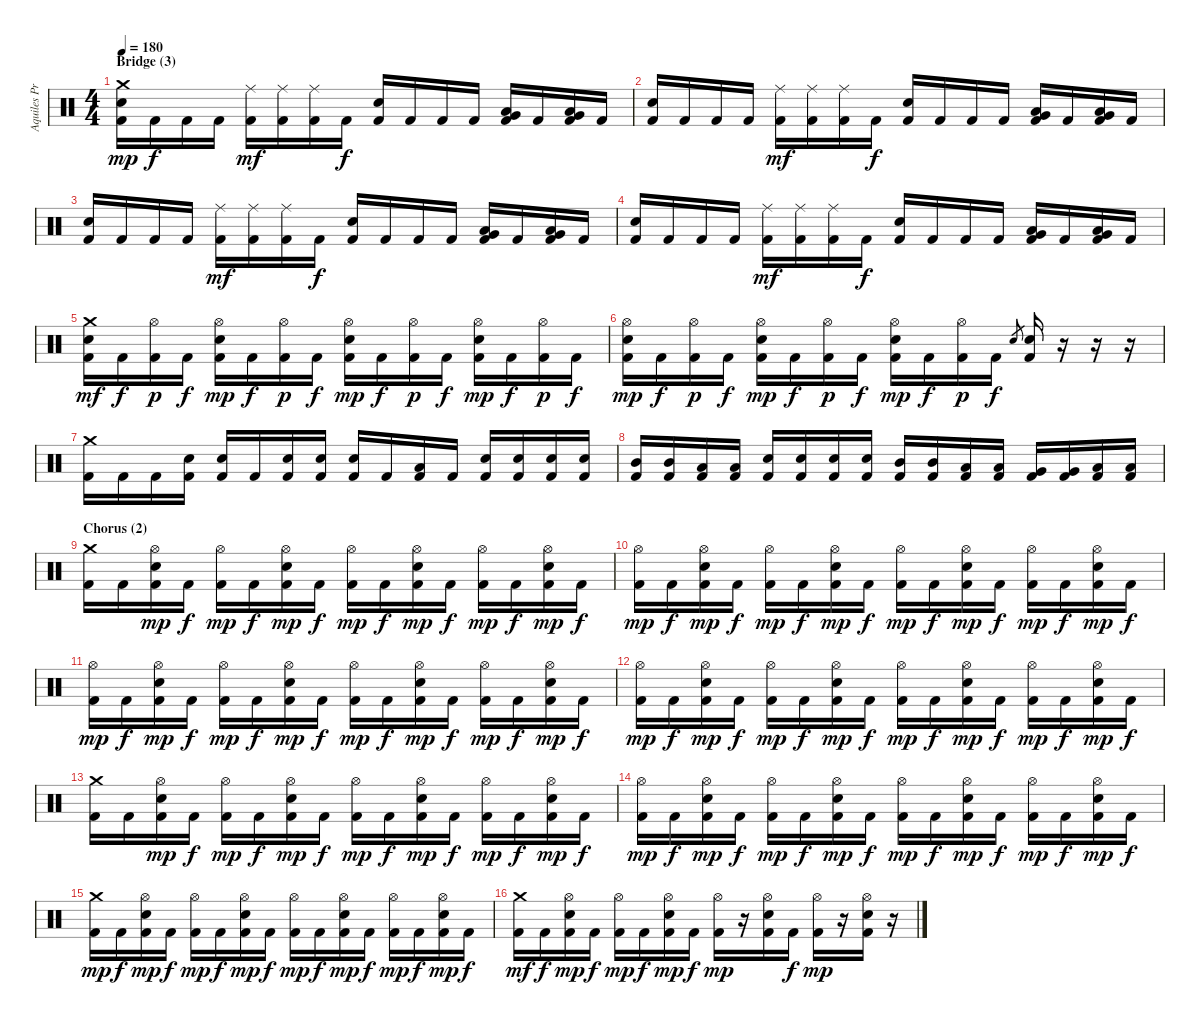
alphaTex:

\track ("Aquiles Priester" "Aquiles Pr") {instrument percussion}
\staff {score}
\articulation defaults
\ts (4 4)
\section ("" "Bridge (3)")
\tempo 180
\clef neutral
\ks c
("Crash medium (hit)" "Snare (hit) 2" "Kick (hit) 2").16{dy mp} "Kick (hit) 2".16{dy f} "Kick (hit) 2".16 "Kick (hit) 2".16 ("Ride (middle)" "Kick (hit) 2").16{dy mf} ("Ride (middle)" "Kick (hit) 2").16 ("Ride (middle)" "Kick (hit) 2").16 "Kick (hit) 2".16{dy f} ("Snare (hit) 2" "Kick (hit) 2").16 "Kick (hit) 2".16 "Kick (hit) 2".16 "Kick (hit) 2".16 ("Low Tom (hit)" "Very Low Tom (hit)" "Kick (hit) 2").16 "Kick (hit) 2".16 ("Low Tom (hit)" "Very Low Tom (hit)" "Kick (hit) 2").16 "Kick (hit) 2".16 |
("Snare (hit) 2" "Kick (hit) 2").16 "Kick (hit) 2".16 "Kick (hit) 2".16 "Kick (hit) 2".16 ("Ride (middle)" "Kick (hit) 2").16{dy mf} ("Ride (middle)" "Kick (hit) 2").16 ("Ride (middle)" "Kick (hit) 2").16 "Kick (hit) 2".16{dy f} ("Snare (hit) 2" "Kick (hit) 2").16 "Kick (hit) 2".16 "Kick (hit) 2".16 "Kick (hit) 2".16 ("Low Tom (hit)" "Very Low Tom (hit)" "Kick (hit) 2").16 "Kick (hit) 2".16 ("Low Tom (hit)" "Very Low Tom (hit)" "Kick (hit) 2").16 "Kick (hit) 2".16 |
("Snare (hit) 2" "Kick (hit) 2").16 "Kick (hit) 2".16 "Kick (hit) 2".16 "Kick (hit) 2".16 ("Ride (middle)" "Kick (hit) 2").16{dy mf} ("Ride (middle)" "Kick (hit) 2").16 ("Ride (middle)" "Kick (hit) 2").16 "Kick (hit) 2".16{dy f} ("Snare (hit) 2" "Kick (hit) 2").16 "Kick (hit) 2".16 "Kick (hit) 2".16 "Kick (hit) 2".16 ("Low Tom (hit)" "Very Low Tom (hit)" "Kick (hit) 2").16 "Kick (hit) 2".16 ("Low Tom (hit)" "Very Low Tom (hit)" "Kick (hit) 2").16 "Kick (hit) 2".16 |
("Snare (hit) 2" "Kick (hit) 2").16 "Kick (hit) 2".16 "Kick (hit) 2".16 "Kick (hit) 2".16 ("Ride (middle)" "Kick (hit) 2").16{dy mf} ("Ride (middle)" "Kick (hit) 2").16 ("Ride (middle)" "Kick (hit) 2").16 "Kick (hit) 2".16{dy f} ("Snare (hit) 2" "Kick (hit) 2").16 "Kick (hit) 2".16 "Kick (hit) 2".16 "Kick (hit) 2".16 ("Low Tom (hit)" "Very Low Tom (hit)" "Kick (hit) 2").16 "Kick (hit) 2".16 ("Low Tom (hit)" "Very Low Tom (hit)" "Kick (hit) 2").16 "Kick (hit) 2".16 |
("Crash medium (hit)" "Snare (hit) 2" "Kick (hit) 2").16{dy mf} "Kick (hit) 2".16{dy f} ("Hi-Hat (open)" "Kick (hit) 2").16{dy p} "Kick (hit) 2".16{dy f} ("Hi-Hat (open)" "Snare (hit) 2" "Kick (hit) 2").16{dy mp} "Kick (hit) 2".16{dy f} ("Hi-Hat (open)" "Kick (hit) 2").16{dy p} "Kick (hit) 2".16{dy f} ("Hi-Hat (open)" "Snare (hit) 2" "Kick (hit) 2").16{dy mp} "Kick (hit) 2".16{dy f} ("Hi-Hat (open)" "Kick (hit) 2").16{dy p} "Kick (hit) 2".16{dy f} ("Hi-Hat (open)" "Snare (hit) 2" "Kick (hit) 2").16{dy mp} "Kick (hit) 2".16{dy f} ("Hi-Hat (open)" "Kick (hit) 2").16{dy p} "Kick (hit) 2".16{dy f} |
("Hi-Hat (open)" "Snare (hit) 2" "Kick (hit) 2").16{dy mp} "Kick (hit) 2".16{dy f} ("Hi-Hat (open)" "Kick (hit) 2").16{dy p} "Kick (hit) 2".16{dy f} ("Hi-Hat (open)" "Snare (hit) 2" "Kick (hit) 2").16{dy mp} "Kick (hit) 2".16{dy f} ("Hi-Hat (open)" "Kick (hit) 2").16{dy p} "Kick (hit) 2".16{dy f} ("Hi-Hat (open)" "Snare (hit) 2" "Kick (hit) 2").16{dy mp} "Kick (hit) 2".16{dy f} ("Hi-Hat (open)" "Kick (hit) 2").16{dy p} "Kick (hit) 2".16{dy f} "Snare (hit) 2".8{gr} ("Snare (hit) 2" "Kick (hit) 2").16 r.16 r.16 r.16 |
("Crash medium (hit)" "Kick (hit) 2").16 "Kick (hit) 2".16 "Kick (hit) 2".16 ("Snare (hit) 2" "Kick (hit) 2").16 ("Snare (hit) 2" "Kick (hit) 2").16 "Kick (hit) 2".16 ("Snare (hit) 2" "Kick (hit) 2").16 ("Snare (hit) 2" "Kick (hit) 2").16 ("Snare (hit) 2" "Kick (hit) 2").16 "Kick (hit) 2".16 ("Low Tom (hit)" "Kick (hit) 2").16 "Kick (hit) 2".16 ("Snare (hit) 2" "Kick (hit) 2").16 ("Snare (hit) 2" "Kick (hit) 2").16 ("Snare (hit) 2" "Kick (hit) 2").16 ("Snare (hit) 2" "Kick (hit) 2").16 |
("Mid Tom (hit)" "Kick (hit) 2").16 ("Mid Tom (hit)" "Kick (hit) 2").16 ("Low Tom (hit)" "Kick (hit) 2").16 ("Low Tom (hit)" "Kick (hit) 2").16 ("Snare (hit) 2" "Kick (hit) 2").16 ("Snare (hit) 2" "Kick (hit) 2").16 ("Snare (hit) 2" "Kick (hit) 2").16 ("Snare (hit) 2" "Kick (hit) 2").16 ("Mid Tom (hit)" "Kick (hit) 2").16 ("Mid Tom (hit)" "Kick (hit) 2").16 ("Low Tom (hit)" "Kick (hit) 2").16 ("Low Tom (hit)" "Kick (hit) 2").16 ("Very Low Tom (hit)" "Kick (hit) 2").16 ("Very Low Tom (hit)" "Kick (hit) 2").16 ("Low Floor Tom (hit)" "Kick (hit) 2").16 ("Low Floor Tom (hit)" "Kick (hit) 2").16 |
\section ("" "Chorus (2)")
("Crash medium (hit)" "Kick (hit) 2").16 "Kick (hit) 2".16 ("Hi-Hat (open)" "Snare (hit) 2" "Kick (hit) 2").16{dy mp} "Kick (hit) 2".16{dy f} ("Hi-Hat (open)" "Kick (hit) 2").16{dy mp} "Kick (hit) 2".16{dy f} ("Hi-Hat (open)" "Snare (hit) 2" "Kick (hit) 2").16{dy mp} "Kick (hit) 2".16{dy f} ("Hi-Hat (open)" "Kick (hit) 2").16{dy mp} "Kick (hit) 2".16{dy f} ("Hi-Hat (open)" "Snare (hit) 2" "Kick (hit) 2").16{dy mp} "Kick (hit) 2".16{dy f} ("Hi-Hat (open)" "Kick (hit) 2").16{dy mp} "Kick (hit) 2".16{dy f} ("Hi-Hat (open)" "Snare (hit) 2" "Kick (hit) 2").16{dy mp} "Kick (hit) 2".16{dy f} |
("Hi-Hat (open)" "Kick (hit) 2").16{dy mp} "Kick (hit) 2".16{dy f} ("Hi-Hat (open)" "Snare (hit) 2" "Kick (hit) 2").16{dy mp} "Kick (hit) 2".16{dy f} ("Hi-Hat (open)" "Kick (hit) 2").16{dy mp} "Kick (hit) 2".16{dy f} ("Hi-Hat (open)" "Snare (hit) 2" "Kick (hit) 2").16{dy mp} "Kick (hit) 2".16{dy f} ("Hi-Hat (open)" "Kick (hit) 2").16{dy mp} "Kick (hit) 2".16{dy f} ("Hi-Hat (open)" "Snare (hit) 2" "Kick (hit) 2").16{dy mp} "Kick (hit) 2".16{dy f} ("Hi-Hat (open)" "Kick (hit) 2").16{dy mp} "Kick (hit) 2".16{dy f} ("Hi-Hat (open)" "Snare (hit) 2" "Kick (hit) 2").16{dy mp} "Kick (hit) 2".16{dy f} |
("Hi-Hat (open)" "Kick (hit) 2").16{dy mp} "Kick (hit) 2".16{dy f} ("Hi-Hat (open)" "Snare (hit) 2" "Kick (hit) 2").16{dy mp} "Kick (hit) 2".16{dy f} ("Hi-Hat (open)" "Kick (hit) 2").16{dy mp} "Kick (hit) 2".16{dy f} ("Hi-Hat (open)" "Snare (hit) 2" "Kick (hit) 2").16{dy mp} "Kick (hit) 2".16{dy f} ("Hi-Hat (open)" "Kick (hit) 2").16{dy mp} "Kick (hit) 2".16{dy f} ("Hi-Hat (open)" "Snare (hit) 2" "Kick (hit) 2").16{dy mp} "Kick (hit) 2".16{dy f} ("Hi-Hat (open)" "Kick (hit) 2").16{dy mp} "Kick (hit) 2".16{dy f} ("Hi-Hat (open)" "Snare (hit) 2" "Kick (hit) 2").16{dy mp} "Kick (hit) 2".16{dy f} |
("Hi-Hat (open)" "Kick (hit) 2").16{dy mp} "Kick (hit) 2".16{dy f} ("Hi-Hat (open)" "Snare (hit) 2" "Kick (hit) 2").16{dy mp} "Kick (hit) 2".16{dy f} ("Hi-Hat (open)" "Kick (hit) 2").16{dy mp} "Kick (hit) 2".16{dy f} ("Hi-Hat (open)" "Snare (hit) 2" "Kick (hit) 2").16{dy mp} "Kick (hit) 2".16{dy f} ("Hi-Hat (open)" "Kick (hit) 2").16{dy mp} "Kick (hit) 2".16{dy f} ("Hi-Hat (open)" "Snare (hit) 2" "Kick (hit) 2").16{dy mp} "Kick (hit) 2".16{dy f} ("Hi-Hat (open)" "Kick (hit) 2").16{dy mp} "Kick (hit) 2".16{dy f} ("Hi-Hat (open)" "Snare (hit) 2" "Kick (hit) 2").16{dy mp} "Kick (hit) 2".16{dy f} |
("Crash medium (hit)" "Kick (hit) 2").16 "Kick (hit) 2".16 ("Hi-Hat (open)" "Snare (hit) 2" "Kick (hit) 2").16{dy mp} "Kick (hit) 2".16{dy f} ("Hi-Hat (open)" "Kick (hit) 2").16{dy mp} "Kick (hit) 2".16{dy f} ("Hi-Hat (open)" "Snare (hit) 2" "Kick (hit) 2").16{dy mp} "Kick (hit) 2".16{dy f} ("Hi-Hat (open)" "Kick (hit) 2").16{dy mp} "Kick (hit) 2".16{dy f} ("Hi-Hat (open)" "Snare (hit) 2" "Kick (hit) 2").16{dy mp} "Kick (hit) 2".16{dy f} ("Hi-Hat (open)" "Kick (hit) 2").16{dy mp} "Kick (hit) 2".16{dy f} ("Hi-Hat (open)" "Snare (hit) 2" "Kick (hit) 2").16{dy mp} "Kick (hit) 2".16{dy f} |
("Hi-Hat (open)" "Kick (hit) 2").16{dy mp} "Kick (hit) 2".16{dy f} ("Hi-Hat (open)" "Snare (hit) 2" "Kick (hit) 2").16{dy mp} "Kick (hit) 2".16{dy f} ("Hi-Hat (open)" "Kick (hit) 2").16{dy mp} "Kick (hit) 2".16{dy f} ("Hi-Hat (open)" "Snare (hit) 2" "Kick (hit) 2").16{dy mp} "Kick (hit) 2".16{dy f} ("Hi-Hat (open)" "Kick (hit) 2").16{dy mp} "Kick (hit) 2".16{dy f} ("Hi-Hat (open)" "Snare (hit) 2" "Kick (hit) 2").16{dy mp} "Kick (hit) 2".16{dy f} ("Hi-Hat (open)" "Kick (hit) 2").16{dy mp} "Kick (hit) 2".16{dy f} ("Hi-Hat (open)" "Snare (hit) 2" "Kick (hit) 2").16{dy mp} "Kick (hit) 2".16{dy f} |
("Crash medium (hit)" "Kick (hit) 2").16{dy mp} "Kick (hit) 2".16{dy f} ("Hi-Hat (open)" "Snare (hit) 2" "Kick (hit) 2").16{dy mp} "Kick (hit) 2".16{dy f} ("Hi-Hat (open)" "Kick (hit) 2").16{dy mp} "Kick (hit) 2".16{dy f} ("Hi-Hat (open)" "Snare (hit) 2" "Kick (hit) 2").16{dy mp} "Kick (hit) 2".16{dy f} ("Hi-Hat (open)" "Kick (hit) 2").16{dy mp} "Kick (hit) 2".16{dy f} ("Hi-Hat (open)" "Snare (hit) 2" "Kick (hit) 2").16{dy mp} "Kick (hit) 2".16{dy f} ("Hi-Hat (open)" "Kick (hit) 2").16{dy mp} "Kick (hit) 2".16{dy f} ("Hi-Hat (open)" "Snare (hit) 2" "Kick (hit) 2").16{dy mp} "Kick (hit) 2".16{dy f} |
("Crash medium (hit)" "Kick (hit) 2").16{dy mf} "Kick (hit) 2".16{dy f} ("Hi-Hat (open)" "Snare (hit) 2" "Kick (hit) 2").16{dy mp} "Kick (hit) 2".16{dy f} ("Hi-Hat (open)" "Kick (hit) 2").16{dy mp} "Kick (hit) 2".16{dy f} ("Hi-Hat (open)" "Snare (hit) 2" "Kick (hit) 2").16{dy mp} "Kick (hit) 2".16{dy f} ("Hi-Hat (open)" "Kick (hit) 2").16{dy mp} r.16 ("Hi-Hat (open)" "Snare (hit) 2" "Kick (hit) 2").16 "Kick (hit) 2".16{dy f} ("Hi-Hat (open)" "Kick (hit) 2").16{dy mp} r.16 ("Hi-Hat (open)" "Snare (hit) 2" "Kick (hit) 2").16 r.16
